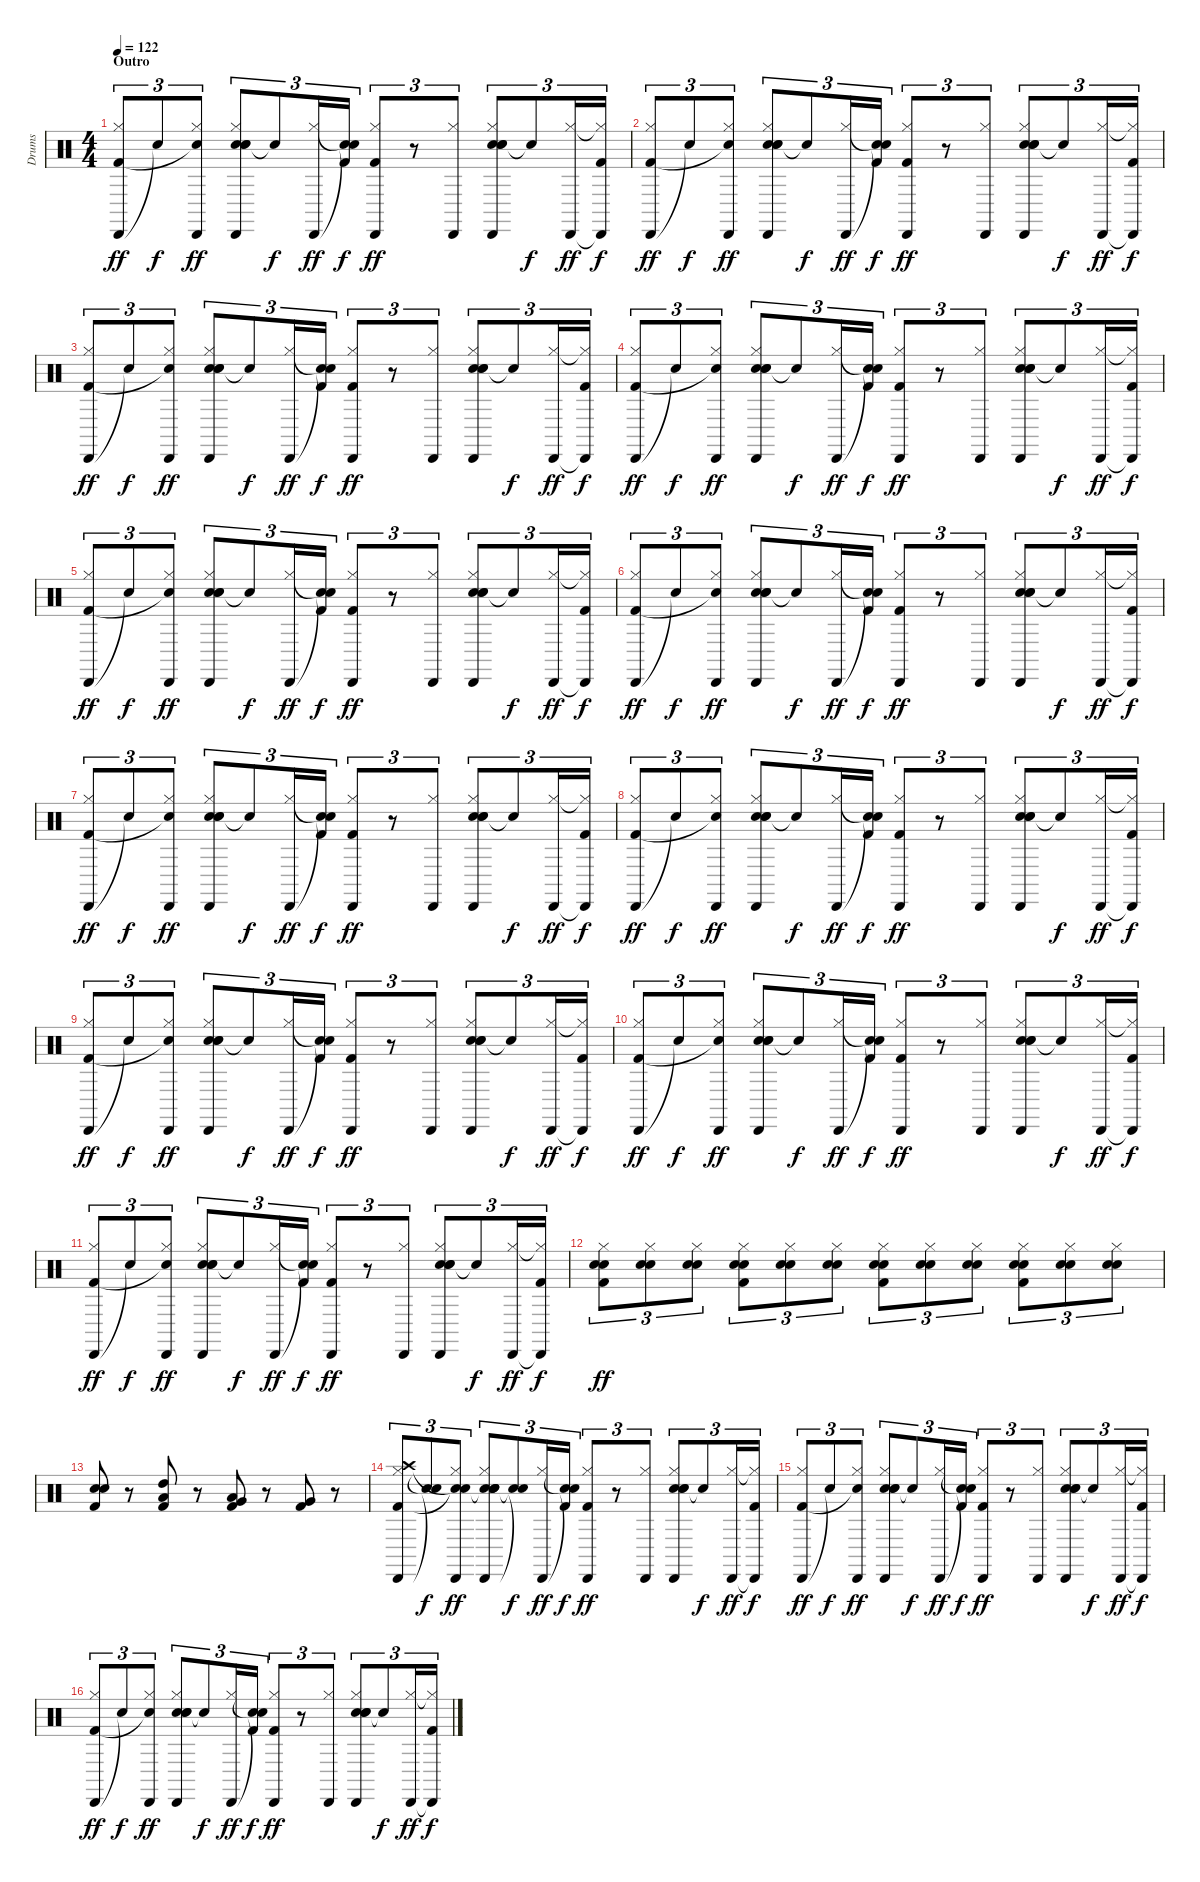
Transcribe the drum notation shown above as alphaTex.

\track ("Drums" "Drums") {instrument percussion}
\staff {score}
\articulation defaults
\ts (4 4)
\section ("" "Outro")
\tempo 122
\clef neutral
\ks c
("Cabasa (hit)" "Hi-Hat (closed)" "Kick (hit) 2").8{tu (3 2) dy ff} "Snare (hit)"{t}.8{tu (3 2) dy f} ("Cabasa (hit)" "Hi-Hat (closed)" "Snare (hit)"{t}).8{tu (3 2) dy ff} ("Hand Clap (hit)" "Cabasa (hit)" "Hi-Hat (closed)" "Snare (hit) 2" "Hand Clap (hit)").8{tu (3 2)} "Snare (hit)"{t}.8{tu (3 2) dy f} ("Cabasa (hit)" "Hi-Hat (closed)").16{tu (3 2) dy ff} ("Snare (hit)"{t} "Snare (hit)"{t} "Kick (hit) 2").16{tu (3 2) dy f} ("Cabasa (hit)" "Hi-Hat (closed)" "Kick (hit) 2").8{tu (3 2) dy ff} r.8{tu (3 2)} ("Cabasa (hit)" "Hi-Hat (closed)").8{tu (3 2)} ("Hand Clap (hit)" "Cabasa (hit)" "Hi-Hat (closed)" "Snare (hit) 2" "Hand Clap (hit)").8{tu (3 2)} "Snare (hit)"{t}.8{tu (3 2) dy f} ("Cabasa (hit)" "Hi-Hat (closed)").16{tu (3 2) dy ff} ("Cabasa (hit)"{t} "Hi-Hat (closed)"{t} "Kick (hit) 2").16{tu (3 2) dy f} |
("Cabasa (hit)" "Hi-Hat (closed)" "Kick (hit) 2").8{tu (3 2) dy ff} "Snare (hit)"{t}.8{tu (3 2) dy f} ("Cabasa (hit)" "Hi-Hat (closed)" "Snare (hit)"{t}).8{tu (3 2) dy ff} ("Hand Clap (hit)" "Cabasa (hit)" "Hi-Hat (closed)" "Snare (hit) 2" "Hand Clap (hit)").8{tu (3 2)} "Snare (hit)"{t}.8{tu (3 2) dy f} ("Cabasa (hit)" "Hi-Hat (closed)").16{tu (3 2) dy ff} ("Snare (hit)"{t} "Snare (hit)"{t} "Kick (hit) 2").16{tu (3 2) dy f} ("Cabasa (hit)" "Hi-Hat (closed)" "Kick (hit) 2").8{tu (3 2) dy ff} r.8{tu (3 2)} ("Cabasa (hit)" "Hi-Hat (closed)").8{tu (3 2)} ("Hand Clap (hit)" "Cabasa (hit)" "Hi-Hat (closed)" "Snare (hit) 2" "Hand Clap (hit)").8{tu (3 2)} "Snare (hit)"{t}.8{tu (3 2) dy f} ("Cabasa (hit)" "Hi-Hat (closed)").16{tu (3 2) dy ff} ("Cabasa (hit)"{t} "Hi-Hat (closed)"{t} "Kick (hit) 2").16{tu (3 2) dy f} |
("Cabasa (hit)" "Hi-Hat (closed)" "Kick (hit) 2").8{tu (3 2) dy ff} "Snare (hit)"{t}.8{tu (3 2) dy f} ("Cabasa (hit)" "Hi-Hat (closed)" "Snare (hit)"{t}).8{tu (3 2) dy ff} ("Hand Clap (hit)" "Cabasa (hit)" "Hi-Hat (closed)" "Snare (hit) 2" "Hand Clap (hit)").8{tu (3 2)} "Snare (hit)"{t}.8{tu (3 2) dy f} ("Cabasa (hit)" "Hi-Hat (closed)").16{tu (3 2) dy ff} ("Snare (hit)"{t} "Snare (hit)"{t} "Kick (hit) 2").16{tu (3 2) dy f} ("Cabasa (hit)" "Hi-Hat (closed)" "Kick (hit) 2").8{tu (3 2) dy ff} r.8{tu (3 2)} ("Cabasa (hit)" "Hi-Hat (closed)").8{tu (3 2)} ("Hand Clap (hit)" "Cabasa (hit)" "Hi-Hat (closed)" "Snare (hit) 2" "Hand Clap (hit)").8{tu (3 2)} "Snare (hit)"{t}.8{tu (3 2) dy f} ("Cabasa (hit)" "Hi-Hat (closed)").16{tu (3 2) dy ff} ("Cabasa (hit)"{t} "Hi-Hat (closed)"{t} "Kick (hit) 2").16{tu (3 2) dy f} |
("Cabasa (hit)" "Hi-Hat (closed)" "Kick (hit) 2").8{tu (3 2) dy ff} "Snare (hit)"{t}.8{tu (3 2) dy f} ("Cabasa (hit)" "Hi-Hat (closed)" "Snare (hit)"{t}).8{tu (3 2) dy ff} ("Hand Clap (hit)" "Cabasa (hit)" "Hi-Hat (closed)" "Snare (hit) 2" "Hand Clap (hit)").8{tu (3 2)} "Snare (hit)"{t}.8{tu (3 2) dy f} ("Cabasa (hit)" "Hi-Hat (closed)").16{tu (3 2) dy ff} ("Snare (hit)"{t} "Snare (hit)"{t} "Kick (hit) 2").16{tu (3 2) dy f} ("Cabasa (hit)" "Hi-Hat (closed)" "Kick (hit) 2").8{tu (3 2) dy ff} r.8{tu (3 2)} ("Cabasa (hit)" "Hi-Hat (closed)").8{tu (3 2)} ("Hand Clap (hit)" "Cabasa (hit)" "Hi-Hat (closed)" "Snare (hit) 2" "Hand Clap (hit)").8{tu (3 2)} "Snare (hit)"{t}.8{tu (3 2) dy f} ("Cabasa (hit)" "Hi-Hat (closed)").16{tu (3 2) dy ff} ("Cabasa (hit)"{t} "Hi-Hat (closed)"{t} "Kick (hit) 2").16{tu (3 2) dy f} |
("Cabasa (hit)" "Hi-Hat (closed)" "Kick (hit) 2").8{tu (3 2) dy ff} "Snare (hit)"{t}.8{tu (3 2) dy f} ("Cabasa (hit)" "Hi-Hat (closed)" "Snare (hit)"{t}).8{tu (3 2) dy ff} ("Hand Clap (hit)" "Cabasa (hit)" "Hi-Hat (closed)" "Snare (hit) 2" "Hand Clap (hit)").8{tu (3 2)} "Snare (hit)"{t}.8{tu (3 2) dy f} ("Cabasa (hit)" "Hi-Hat (closed)").16{tu (3 2) dy ff} ("Snare (hit)"{t} "Snare (hit)"{t} "Kick (hit) 2").16{tu (3 2) dy f} ("Cabasa (hit)" "Hi-Hat (closed)" "Kick (hit) 2").8{tu (3 2) dy ff} r.8{tu (3 2)} ("Cabasa (hit)" "Hi-Hat (closed)").8{tu (3 2)} ("Hand Clap (hit)" "Cabasa (hit)" "Hi-Hat (closed)" "Snare (hit) 2" "Hand Clap (hit)").8{tu (3 2)} "Snare (hit)"{t}.8{tu (3 2) dy f} ("Cabasa (hit)" "Hi-Hat (closed)").16{tu (3 2) dy ff} ("Cabasa (hit)"{t} "Hi-Hat (closed)"{t} "Kick (hit) 2").16{tu (3 2) dy f} |
("Cabasa (hit)" "Hi-Hat (closed)" "Kick (hit) 2").8{tu (3 2) dy ff} "Snare (hit)"{t}.8{tu (3 2) dy f} ("Cabasa (hit)" "Hi-Hat (closed)" "Snare (hit)"{t}).8{tu (3 2) dy ff} ("Hand Clap (hit)" "Cabasa (hit)" "Hi-Hat (closed)" "Snare (hit) 2" "Hand Clap (hit)").8{tu (3 2)} "Snare (hit)"{t}.8{tu (3 2) dy f} ("Cabasa (hit)" "Hi-Hat (closed)").16{tu (3 2) dy ff} ("Snare (hit)"{t} "Snare (hit)"{t} "Kick (hit) 2").16{tu (3 2) dy f} ("Cabasa (hit)" "Hi-Hat (closed)" "Kick (hit) 2").8{tu (3 2) dy ff} r.8{tu (3 2)} ("Cabasa (hit)" "Hi-Hat (closed)").8{tu (3 2)} ("Hand Clap (hit)" "Cabasa (hit)" "Hi-Hat (closed)" "Snare (hit) 2" "Hand Clap (hit)").8{tu (3 2)} "Snare (hit)"{t}.8{tu (3 2) dy f} ("Cabasa (hit)" "Hi-Hat (closed)").16{tu (3 2) dy ff} ("Cabasa (hit)"{t} "Hi-Hat (closed)"{t} "Kick (hit) 2").16{tu (3 2) dy f} |
("Cabasa (hit)" "Hi-Hat (closed)" "Kick (hit) 2").8{tu (3 2) dy ff} "Snare (hit)"{t}.8{tu (3 2) dy f} ("Cabasa (hit)" "Hi-Hat (closed)" "Snare (hit)"{t}).8{tu (3 2) dy ff} ("Hand Clap (hit)" "Cabasa (hit)" "Hi-Hat (closed)" "Snare (hit) 2" "Hand Clap (hit)").8{tu (3 2)} "Snare (hit)"{t}.8{tu (3 2) dy f} ("Cabasa (hit)" "Hi-Hat (closed)").16{tu (3 2) dy ff} ("Snare (hit)"{t} "Snare (hit)"{t} "Kick (hit) 2").16{tu (3 2) dy f} ("Cabasa (hit)" "Hi-Hat (closed)" "Kick (hit) 2").8{tu (3 2) dy ff} r.8{tu (3 2)} ("Cabasa (hit)" "Hi-Hat (closed)").8{tu (3 2)} ("Hand Clap (hit)" "Cabasa (hit)" "Hi-Hat (closed)" "Snare (hit) 2" "Hand Clap (hit)").8{tu (3 2)} "Snare (hit)"{t}.8{tu (3 2) dy f} ("Cabasa (hit)" "Hi-Hat (closed)").16{tu (3 2) dy ff} ("Cabasa (hit)"{t} "Hi-Hat (closed)"{t} "Kick (hit) 2").16{tu (3 2) dy f} |
("Cabasa (hit)" "Hi-Hat (closed)" "Kick (hit) 2").8{tu (3 2) dy ff} "Snare (hit)"{t}.8{tu (3 2) dy f} ("Cabasa (hit)" "Hi-Hat (closed)" "Snare (hit)"{t}).8{tu (3 2) dy ff} ("Hand Clap (hit)" "Cabasa (hit)" "Hi-Hat (closed)" "Snare (hit) 2" "Hand Clap (hit)").8{tu (3 2)} "Snare (hit)"{t}.8{tu (3 2) dy f} ("Cabasa (hit)" "Hi-Hat (closed)").16{tu (3 2) dy ff} ("Snare (hit)"{t} "Snare (hit)"{t} "Kick (hit) 2").16{tu (3 2) dy f} ("Cabasa (hit)" "Hi-Hat (closed)" "Kick (hit) 2").8{tu (3 2) dy ff} r.8{tu (3 2)} ("Cabasa (hit)" "Hi-Hat (closed)").8{tu (3 2)} ("Hand Clap (hit)" "Cabasa (hit)" "Hi-Hat (closed)" "Snare (hit) 2" "Hand Clap (hit)").8{tu (3 2)} "Snare (hit)"{t}.8{tu (3 2) dy f} ("Cabasa (hit)" "Hi-Hat (closed)").16{tu (3 2) dy ff} ("Cabasa (hit)"{t} "Hi-Hat (closed)"{t} "Kick (hit) 2").16{tu (3 2) dy f} |
("Cabasa (hit)" "Hi-Hat (closed)" "Kick (hit) 2").8{tu (3 2) dy ff} "Snare (hit)"{t}.8{tu (3 2) dy f} ("Cabasa (hit)" "Hi-Hat (closed)" "Snare (hit)"{t}).8{tu (3 2) dy ff} ("Hand Clap (hit)" "Cabasa (hit)" "Hi-Hat (closed)" "Snare (hit) 2" "Hand Clap (hit)").8{tu (3 2)} "Snare (hit)"{t}.8{tu (3 2) dy f} ("Cabasa (hit)" "Hi-Hat (closed)").16{tu (3 2) dy ff} ("Snare (hit)"{t} "Snare (hit)"{t} "Kick (hit) 2").16{tu (3 2) dy f} ("Cabasa (hit)" "Hi-Hat (closed)" "Kick (hit) 2").8{tu (3 2) dy ff} r.8{tu (3 2)} ("Cabasa (hit)" "Hi-Hat (closed)").8{tu (3 2)} ("Hand Clap (hit)" "Cabasa (hit)" "Hi-Hat (closed)" "Snare (hit) 2" "Hand Clap (hit)").8{tu (3 2)} "Snare (hit)"{t}.8{tu (3 2) dy f} ("Cabasa (hit)" "Hi-Hat (closed)").16{tu (3 2) dy ff} ("Cabasa (hit)"{t} "Hi-Hat (closed)"{t} "Kick (hit) 2").16{tu (3 2) dy f} |
("Cabasa (hit)" "Hi-Hat (closed)" "Kick (hit) 2").8{tu (3 2) dy ff} "Snare (hit)"{t}.8{tu (3 2) dy f} ("Cabasa (hit)" "Hi-Hat (closed)" "Snare (hit)"{t}).8{tu (3 2) dy ff} ("Hand Clap (hit)" "Cabasa (hit)" "Hi-Hat (closed)" "Snare (hit) 2" "Hand Clap (hit)").8{tu (3 2)} "Snare (hit)"{t}.8{tu (3 2) dy f} ("Cabasa (hit)" "Hi-Hat (closed)").16{tu (3 2) dy ff} ("Snare (hit)"{t} "Snare (hit)"{t} "Kick (hit) 2").16{tu (3 2) dy f} ("Cabasa (hit)" "Hi-Hat (closed)" "Kick (hit) 2").8{tu (3 2) dy ff} r.8{tu (3 2)} ("Cabasa (hit)" "Hi-Hat (closed)").8{tu (3 2)} ("Hand Clap (hit)" "Cabasa (hit)" "Hi-Hat (closed)" "Snare (hit) 2" "Hand Clap (hit)").8{tu (3 2)} "Snare (hit)"{t}.8{tu (3 2) dy f} ("Cabasa (hit)" "Hi-Hat (closed)").16{tu (3 2) dy ff} ("Cabasa (hit)"{t} "Hi-Hat (closed)"{t} "Kick (hit) 2").16{tu (3 2) dy f} |
("Cabasa (hit)" "Hi-Hat (closed)" "Kick (hit) 2").8{tu (3 2) dy ff} "Snare (hit)"{t}.8{tu (3 2) dy f} ("Cabasa (hit)" "Hi-Hat (closed)" "Snare (hit)"{t}).8{tu (3 2) dy ff} ("Hand Clap (hit)" "Cabasa (hit)" "Hi-Hat (closed)" "Snare (hit) 2" "Hand Clap (hit)").8{tu (3 2)} "Snare (hit)"{t}.8{tu (3 2) dy f} ("Cabasa (hit)" "Hi-Hat (closed)").16{tu (3 2) dy ff} ("Snare (hit)"{t} "Snare (hit)"{t} "Kick (hit) 2").16{tu (3 2) dy f} ("Cabasa (hit)" "Hi-Hat (closed)" "Kick (hit) 2").8{tu (3 2) dy ff} r.8{tu (3 2)} ("Cabasa (hit)" "Hi-Hat (closed)").8{tu (3 2)} ("Hand Clap (hit)" "Cabasa (hit)" "Hi-Hat (closed)" "Snare (hit) 2" "Hand Clap (hit)").8{tu (3 2)} "Snare (hit)"{t}.8{tu (3 2) dy f} ("Cabasa (hit)" "Hi-Hat (closed)").16{tu (3 2) dy ff} ("Cabasa (hit)"{t} "Hi-Hat (closed)"{t} "Kick (hit) 2").16{tu (3 2) dy f} |
("Hand Clap (hit)" "Hi-Hat (closed)" "Snare (hit) 2" "Kick (hit) 2").8{tu (3 2) dy ff} ("Hand Clap (hit)" "Hi-Hat (closed)" "Snare (hit) 2").8{tu (3 2)} ("Hand Clap (hit)" "Hi-Hat (closed)" "Snare (hit) 2").8{tu (3 2)} ("Hand Clap (hit)" "Hi-Hat (closed)" "Snare (hit) 2" "Kick (hit) 2").8{tu (3 2)} ("Hand Clap (hit)" "Hi-Hat (closed)" "Snare (hit) 2").8{tu (3 2)} ("Hand Clap (hit)" "Hi-Hat (closed)" "Snare (hit) 2").8{tu (3 2)} ("Hand Clap (hit)" "Hi-Hat (closed)" "Snare (hit) 2" "Kick (hit) 2").8{tu (3 2)} ("Hand Clap (hit)" "Hi-Hat (closed)" "Snare (hit) 2").8{tu (3 2)} ("Hand Clap (hit)" "Hi-Hat (closed)" "Snare (hit) 2").8{tu (3 2)} ("Hand Clap (hit)" "Hi-Hat (closed)" "Snare (hit) 2" "Kick (hit) 2").8{tu (3 2)} ("Hand Clap (hit)" "Hi-Hat (closed)" "Snare (hit) 2").8{tu (3 2)} ("Hand Clap (hit)" "Hi-Hat (closed)" "Snare (hit) 2").8{tu (3 2)} |
("Hand Clap (hit)" "Snare (hit) 2" "Kick (hit) 2").8 r.8 ("High Tom (hit)" "Low Tom (hit)" "Kick (hit) 2").8 r.8 ("Low Tom (hit)" "Very Low Tom (hit)" "Kick (hit) 2").8 r.8 ("Very Low Tom (hit)" "Kick (hit) 2").8 r.8 |
("Cabasa (hit)" "Hi-Hat (closed)" "Crash high (hit)" "Kick (hit) 2").8{tu (3 2)} ("Snare (hit)"{t} "Snare (hit)"{t}).8{tu (3 2) dy f} ("Cabasa (hit)" "Hi-Hat (closed)" "Snare (hit)"{t} "Snare (hit)"{t}).8{tu (3 2) dy ff} ("Hand Clap (hit)" "Cabasa (hit)" "Hi-Hat (closed)" "Snare (hit)"{t} "Snare (hit) 2" "Hand Clap (hit)").8{tu (3 2)} ("Snare (hit)"{t} "Snare (hit)"{t}).8{tu (3 2) dy f} ("Cabasa (hit)" "Hi-Hat (closed)").16{tu (3 2) dy ff} ("Snare (hit)"{t} "Snare (hit)"{t} "Kick (hit) 2").16{tu (3 2) dy f} ("Cabasa (hit)" "Hi-Hat (closed)" "Kick (hit) 2").8{tu (3 2) dy ff} r.8{tu (3 2)} ("Cabasa (hit)" "Hi-Hat (closed)").8{tu (3 2)} ("Hand Clap (hit)" "Cabasa (hit)" "Hi-Hat (closed)" "Snare (hit) 2" "Hand Clap (hit)").8{tu (3 2)} "Snare (hit)"{t}.8{tu (3 2) dy f} ("Cabasa (hit)" "Hi-Hat (closed)").16{tu (3 2) dy ff} ("Cabasa (hit)"{t} "Hi-Hat (closed)"{t} "Kick (hit) 2").16{tu (3 2) dy f} |
("Cabasa (hit)" "Hi-Hat (closed)" "Kick (hit) 2").8{tu (3 2) dy ff} "Snare (hit)"{t}.8{tu (3 2) dy f} ("Cabasa (hit)" "Hi-Hat (closed)" "Snare (hit)"{t}).8{tu (3 2) dy ff} ("Hand Clap (hit)" "Cabasa (hit)" "Hi-Hat (closed)" "Snare (hit) 2" "Hand Clap (hit)").8{tu (3 2)} "Snare (hit)"{t}.8{tu (3 2) dy f} ("Cabasa (hit)" "Hi-Hat (closed)").16{tu (3 2) dy ff} ("Snare (hit)"{t} "Snare (hit)"{t} "Kick (hit) 2").16{tu (3 2) dy f} ("Cabasa (hit)" "Hi-Hat (closed)" "Kick (hit) 2").8{tu (3 2) dy ff} r.8{tu (3 2)} ("Cabasa (hit)" "Hi-Hat (closed)").8{tu (3 2)} ("Hand Clap (hit)" "Cabasa (hit)" "Hi-Hat (closed)" "Snare (hit) 2" "Hand Clap (hit)").8{tu (3 2)} "Snare (hit)"{t}.8{tu (3 2) dy f} ("Cabasa (hit)" "Hi-Hat (closed)").16{tu (3 2) dy ff} ("Cabasa (hit)"{t} "Hi-Hat (closed)"{t} "Kick (hit) 2").16{tu (3 2) dy f} |
("Cabasa (hit)" "Hi-Hat (closed)" "Kick (hit) 2").8{tu (3 2) dy ff} "Snare (hit)"{t}.8{tu (3 2) dy f} ("Cabasa (hit)" "Hi-Hat (closed)" "Snare (hit)"{t}).8{tu (3 2) dy ff} ("Hand Clap (hit)" "Cabasa (hit)" "Hi-Hat (closed)" "Snare (hit) 2" "Hand Clap (hit)").8{tu (3 2)} "Snare (hit)"{t}.8{tu (3 2) dy f} ("Cabasa (hit)" "Hi-Hat (closed)").16{tu (3 2) dy ff} ("Snare (hit)"{t} "Snare (hit)"{t} "Kick (hit) 2").16{tu (3 2) dy f} ("Cabasa (hit)" "Hi-Hat (closed)" "Kick (hit) 2").8{tu (3 2) dy ff} r.8{tu (3 2)} ("Cabasa (hit)" "Hi-Hat (closed)").8{tu (3 2)} ("Hand Clap (hit)" "Cabasa (hit)" "Hi-Hat (closed)" "Snare (hit) 2" "Hand Clap (hit)").8{tu (3 2)} "Snare (hit)"{t}.8{tu (3 2) dy f} ("Cabasa (hit)" "Hi-Hat (closed)").16{tu (3 2) dy ff} ("Cabasa (hit)"{t} "Hi-Hat (closed)"{t} "Kick (hit) 2").16{tu (3 2) dy f}
